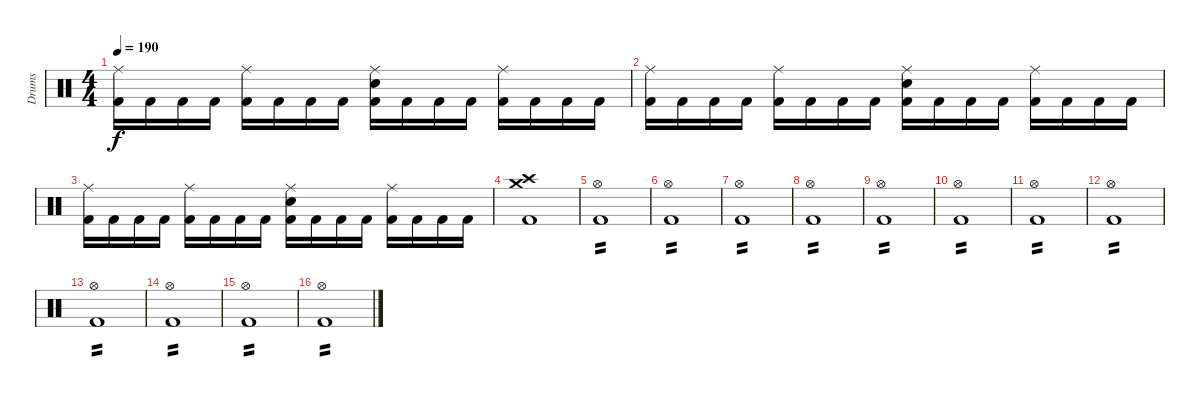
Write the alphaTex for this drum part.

\track ("Drums" "Drums") {instrument percussion}
\staff {score}
\articulation defaults
\ts (4 4)
\tempo 190
\clef neutral
\ks c
("Ride (middle)" "Kick (hit) 2").16{dy f} "Kick (hit) 2".16 "Kick (hit) 2".16 "Kick (hit) 2".16 ("Ride (middle)" "Kick (hit) 2").16 "Kick (hit) 2".16 "Kick (hit) 2".16 "Kick (hit) 2".16 ("Ride (middle)" "Snare (hit) 2" "Kick (hit) 2").16 "Kick (hit) 2".16 "Kick (hit) 2".16 "Kick (hit) 2".16 ("Ride (middle)" "Kick (hit) 2").16 "Kick (hit) 2".16 "Kick (hit) 2".16 "Kick (hit) 2".16 |
("Ride (middle)" "Kick (hit) 2").16 "Kick (hit) 2".16 "Kick (hit) 2".16 "Kick (hit) 2".16 ("Ride (middle)" "Kick (hit) 2").16 "Kick (hit) 2".16 "Kick (hit) 2".16 "Kick (hit) 2".16 ("Ride (middle)" "Snare (hit) 2" "Kick (hit) 2").16 "Kick (hit) 2".16 "Kick (hit) 2".16 "Kick (hit) 2".16 ("Ride (middle)" "Kick (hit) 2").16 "Kick (hit) 2".16 "Kick (hit) 2".16 "Kick (hit) 2".16 |
("Ride (middle)" "Kick (hit) 2").16 "Kick (hit) 2".16 "Kick (hit) 2".16 "Kick (hit) 2".16 ("Ride (middle)" "Kick (hit) 2").16 "Kick (hit) 2".16 "Kick (hit) 2".16 "Kick (hit) 2".16 ("Ride (middle)" "Snare (hit) 2" "Kick (hit) 2").16 "Kick (hit) 2".16 "Kick (hit) 2".16 "Kick (hit) 2".16 ("Ride (middle)" "Kick (hit) 2").16 "Kick (hit) 2".16 "Kick (hit) 2".16 "Kick (hit) 2".16 |
("Crash medium (hit)" "Crash high (hit)" "Kick (hit) 2").1 |
("Hi-Hat (open)" "Kick (hit) 2").1{tp 2} |
("Hi-Hat (open)" "Kick (hit) 2").1{tp 2} |
("Hi-Hat (open)" "Kick (hit) 2").1{tp 2} |
("Hi-Hat (open)" "Kick (hit) 2").1{tp 2} |
("Hi-Hat (open)" "Kick (hit) 2").1{tp 2} |
("Hi-Hat (open)" "Kick (hit) 2").1{tp 2} |
("Hi-Hat (open)" "Kick (hit) 2").1{tp 2} |
("Hi-Hat (open)" "Kick (hit) 2").1{tp 2} |
("Hi-Hat (open)" "Kick (hit) 2").1{tp 2} |
("Hi-Hat (open)" "Kick (hit) 2").1{tp 2} |
("Hi-Hat (open)" "Kick (hit) 2").1{tp 2} |
("Hi-Hat (open)" "Kick (hit) 2").1{tp 2}
